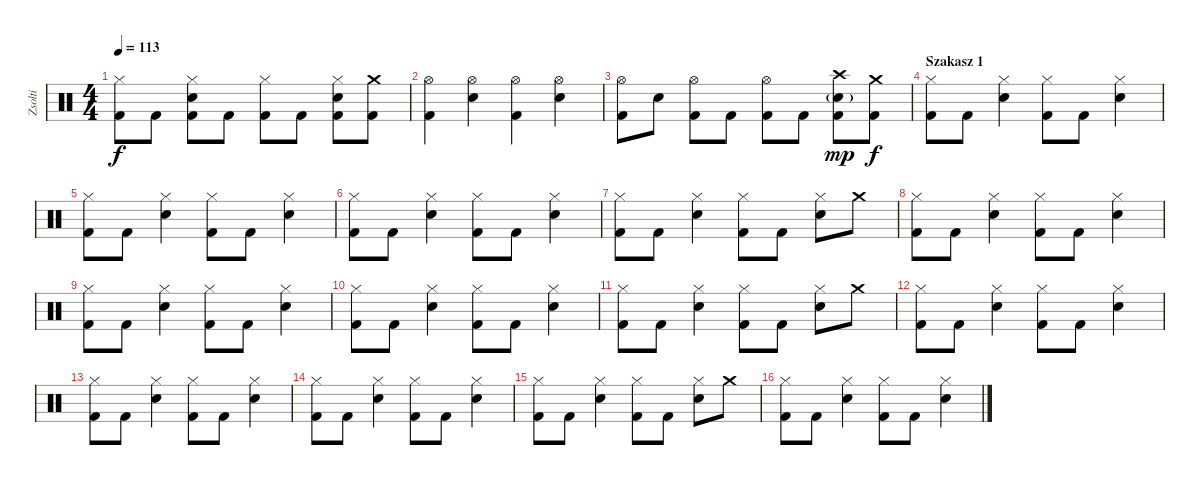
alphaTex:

\track ("Zsolti" "Zsolti") {instrument percussion}
\staff {score}
\articulation defaults
\ts (4 4)
\tempo 113
\clef neutral
\ks c
("Hi-Hat (closed)" "Kick (hit) 2").8{dy f} "Kick (hit) 2".8 ("Hi-Hat (closed)" "Snare (hit) 2" "Kick (hit) 2").8 "Kick (hit) 2".8 ("Hi-Hat (closed)" "Kick (hit) 2").8 "Kick (hit) 2".8 ("Hi-Hat (closed)" "Snare (hit) 2" "Kick (hit) 2").8 ("Crash medium (hit)" "Kick (hit) 2").8 |
("Hi-Hat (open)" "Kick (hit) 2").4 ("Hi-Hat (open)" "Snare (hit) 2").4 ("Hi-Hat (open)" "Kick (hit) 2").4 ("Hi-Hat (open)" "Snare (hit) 2").4 |
("Hi-Hat (open)" "Kick (hit) 2").8 "Snare (hit) 2".8 ("Hi-Hat (open)" "Kick (hit) 2").8 "Kick (hit) 2".8 ("Hi-Hat (open)" "Kick (hit) 2").8 "Kick (hit) 2".8 ("Crash high (hit)" "Snare (hit) 2"{g} "Kick (hit) 2").8{dy mp} ("Crash medium (hit)" "Kick (hit) 2").8{dy f} |
\section ("" "Szakasz 1")
("Hi-Hat (closed)" "Kick (hit) 2").8 "Kick (hit) 2".8 ("Hi-Hat (closed)" "Snare (hit) 2").4 ("Hi-Hat (closed)" "Kick (hit) 2").8 "Kick (hit) 2".8 ("Hi-Hat (closed)" "Snare (hit) 2").4 |
("Hi-Hat (closed)" "Kick (hit) 2").8 "Kick (hit) 2".8 ("Hi-Hat (closed)" "Snare (hit) 2").4 ("Hi-Hat (closed)" "Kick (hit) 2").8 "Kick (hit) 2".8 ("Hi-Hat (closed)" "Snare (hit) 2").4 |
("Hi-Hat (closed)" "Kick (hit) 2").8 "Kick (hit) 2".8 ("Hi-Hat (closed)" "Snare (hit) 2").4 ("Hi-Hat (closed)" "Kick (hit) 2").8 "Kick (hit) 2".8 ("Hi-Hat (closed)" "Snare (hit) 2").4 |
("Hi-Hat (closed)" "Kick (hit) 2").8 "Kick (hit) 2".8 ("Hi-Hat (closed)" "Snare (hit) 2").4 ("Hi-Hat (closed)" "Kick (hit) 2").8 "Kick (hit) 2".8 ("Hi-Hat (closed)" "Snare (hit) 2").8 "Crash medium (hit)".8 |
("Hi-Hat (closed)" "Kick (hit) 2").8 "Kick (hit) 2".8 ("Hi-Hat (closed)" "Snare (hit) 2").4 ("Hi-Hat (closed)" "Kick (hit) 2").8 "Kick (hit) 2".8 ("Hi-Hat (closed)" "Snare (hit) 2").4 |
("Hi-Hat (closed)" "Kick (hit) 2").8 "Kick (hit) 2".8 ("Hi-Hat (closed)" "Snare (hit) 2").4 ("Hi-Hat (closed)" "Kick (hit) 2").8 "Kick (hit) 2".8 ("Hi-Hat (closed)" "Snare (hit) 2").4 |
("Hi-Hat (closed)" "Kick (hit) 2").8 "Kick (hit) 2".8 ("Hi-Hat (closed)" "Snare (hit) 2").4 ("Hi-Hat (closed)" "Kick (hit) 2").8 "Kick (hit) 2".8 ("Hi-Hat (closed)" "Snare (hit) 2").4 |
("Hi-Hat (closed)" "Kick (hit) 2").8 "Kick (hit) 2".8 ("Hi-Hat (closed)" "Snare (hit) 2").4 ("Hi-Hat (closed)" "Kick (hit) 2").8 "Kick (hit) 2".8 ("Hi-Hat (closed)" "Snare (hit) 2").8 "Crash medium (hit)".8 |
("Hi-Hat (closed)" "Kick (hit) 2").8 "Kick (hit) 2".8 ("Hi-Hat (closed)" "Snare (hit) 2").4 ("Hi-Hat (closed)" "Kick (hit) 2").8 "Kick (hit) 2".8 ("Hi-Hat (closed)" "Snare (hit) 2").4 |
("Hi-Hat (closed)" "Kick (hit) 2").8 "Kick (hit) 2".8 ("Hi-Hat (closed)" "Snare (hit) 2").4 ("Hi-Hat (closed)" "Kick (hit) 2").8 "Kick (hit) 2".8 ("Hi-Hat (closed)" "Snare (hit) 2").4 |
("Hi-Hat (closed)" "Kick (hit) 2").8 "Kick (hit) 2".8 ("Hi-Hat (closed)" "Snare (hit) 2").4 ("Hi-Hat (closed)" "Kick (hit) 2").8 "Kick (hit) 2".8 ("Hi-Hat (closed)" "Snare (hit) 2").4 |
("Hi-Hat (closed)" "Kick (hit) 2").8 "Kick (hit) 2".8 ("Hi-Hat (closed)" "Snare (hit) 2").4 ("Hi-Hat (closed)" "Kick (hit) 2").8 "Kick (hit) 2".8 ("Hi-Hat (closed)" "Snare (hit) 2").8 "Crash medium (hit)".8 |
("Hi-Hat (closed)" "Kick (hit) 2").8 "Kick (hit) 2".8 ("Hi-Hat (closed)" "Snare (hit) 2").4 ("Hi-Hat (closed)" "Kick (hit) 2").8 "Kick (hit) 2".8 ("Hi-Hat (closed)" "Snare (hit) 2").4
